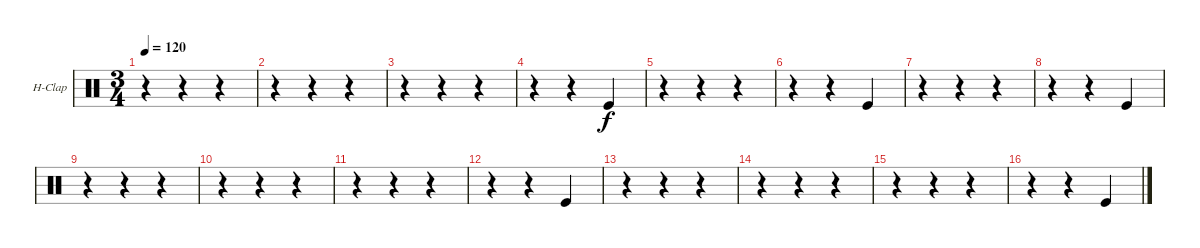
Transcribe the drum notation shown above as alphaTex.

\bracketExtendMode groupsimilarinstruments
\firstSystemTrackNameOrientation horizontal
\otherSystemsTrackNameOrientation horizontal
\track ("Hand Clap" "H-Clap") {instrument percussion}
\staff {score}
\articulation defaults
\ts (3 4)
\tempo 120
\clef neutral
\ks c
r.4{dy f} r.4 r.4 |
r.4 r.4 r.4 |
r.4 r.4 r.4 |
r.4 r.4 "Kick (hit)".4 |
r.4 r.4 r.4 |
r.4 r.4 "Kick (hit)".4 |
r.4 r.4 r.4 |
r.4 r.4 "Kick (hit)".4 |
r.4 r.4 r.4 |
r.4 r.4 r.4 |
r.4 r.4 r.4 |
r.4 r.4 "Kick (hit)".4 |
r.4 r.4 r.4 |
r.4 r.4 r.4 |
r.4 r.4 r.4 |
r.4 r.4 "Kick (hit)".4
